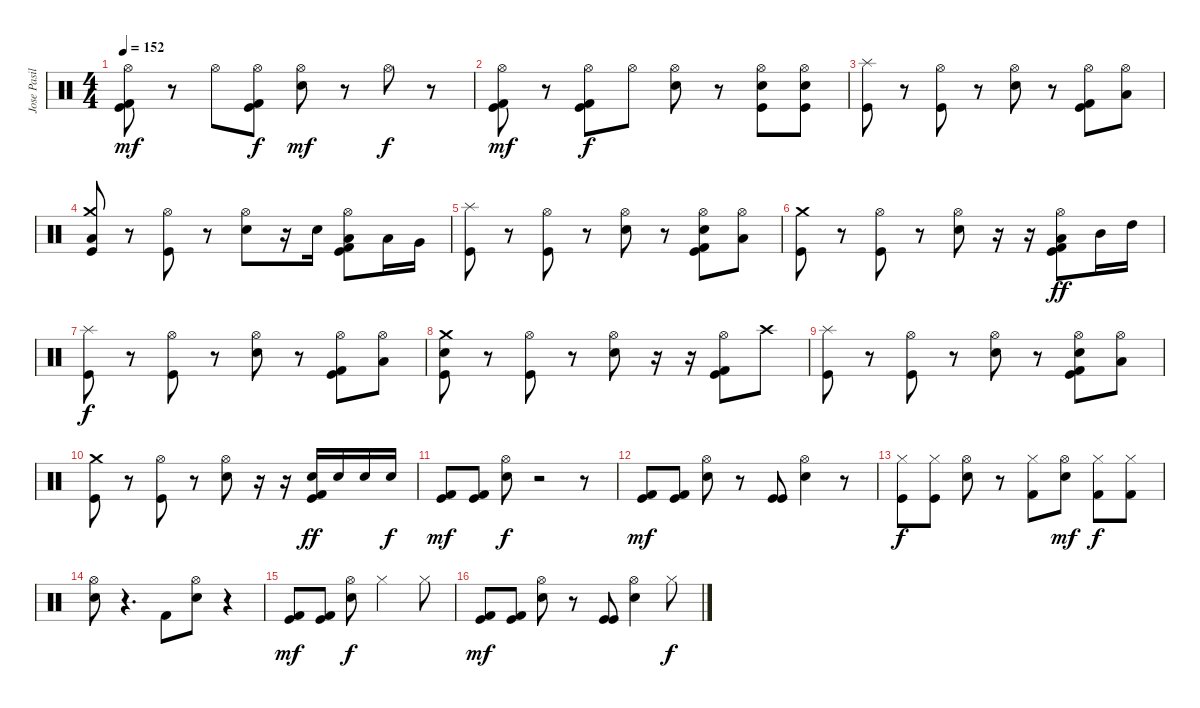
\track ("Jose Pasillas" "Jose Pasil") {instrument percussion}
\staff {score}
\articulation defaults
\ts (4 4)
\tempo 152
\clef neutral
\ks c
("Hi-Hat (open)" "Kick (hit) 2" "Kick (hit)").8{dy mf} r.8 "Hi-Hat (open)".8 ("Hi-Hat (open)" "Kick (hit) 2" "Kick (hit)").8{dy f} ("Hi-Hat (open)" "Electric Snare (hit)").8{dy mf} r.8 "Hi-Hat (open)".8{dy f} r.8 |
("Hi-Hat (open)" "Kick (hit) 2" "Kick (hit)").8{dy mf} r.8 ("Hi-Hat (open)" "Kick (hit)" "Kick (hit) 2").8{dy f} "Hi-Hat (open)".8 ("Hi-Hat (open)" "Electric Snare (hit)").8 r.8 ("Hi-Hat (open)" "Electric Snare (hit)" "Kick (hit)").8 ("Hi-Hat (open)" "Electric Snare (hit)" "Kick (hit)").8 |
("Splash (hit)" "Kick (hit)").8 r.8 ("Hi-Hat (open)" "Kick (hit)").8 r.8 ("Hi-Hat (open)" "Electric Snare (hit)").8 r.8 ("Hi-Hat (open)" "Kick (hit) 2" "Kick (hit)").8 ("Hi-Hat (open)" "Low Tom (hit)").8 |
("Crash medium (hit)" "Low Floor Tom (hit)" "Kick (hit)").8 r.8 ("Hi-Hat (open)" "Kick (hit)").8 r.8 ("Hi-Hat (open)" "Electric Snare (hit)").8 r.16 "Electric Snare (hit)".16 ("Hi-Hat (open)" "Low Tom (hit)" "Kick (hit) 2" "Kick (hit)").8 "Low Floor Tom (hit)".16 "Very Low Tom (hit)".16 |
("Splash (hit)" "Kick (hit)").8 r.8 ("Hi-Hat (open)" "Kick (hit)").8 r.8 ("Hi-Hat (open)" "Electric Snare (hit)").8 r.8 ("Hi-Hat (open)" "Electric Snare (hit)" "Kick (hit) 2" "Kick (hit)").8 ("Hi-Hat (open)" "Low Tom (hit)").8 |
("Crash medium (hit)" "Kick (hit)").8 r.8 ("Hi-Hat (open)" "Kick (hit)").8 r.8 ("Hi-Hat (open)" "Electric Snare (hit)").8 r.16 r.16 ("Hi-Hat (open)" "Low Tom (hit)" "Kick (hit) 2" "Kick (hit)").8{dy ff} "Mid Tom (hit)".16 "High Tom (hit)".16 |
("Splash (hit)" "Kick (hit)").8{dy f} r.8 ("Hi-Hat (open)" "Kick (hit)").8 r.8 ("Hi-Hat (open)" "Electric Snare (hit)").8 r.8 ("Hi-Hat (open)" "Kick (hit) 2" "Kick (hit)").8 ("Hi-Hat (open)" "Low Tom (hit)").8 |
("Crash medium (hit)" "Electric Snare (hit)" "Kick (hit)").8 r.8 ("Hi-Hat (open)" "Kick (hit)").8 r.8 ("Hi-Hat (open)" "Electric Snare (hit)").8 r.16 r.16 ("Hi-Hat (open)" "Kick (hit) 2" "Kick (hit)").8 "Crash high (hit)".8 |
("Splash (hit)" "Kick (hit)").8 r.8 ("Hi-Hat (open)" "Kick (hit)").8 r.8 ("Hi-Hat (open)" "Electric Snare (hit)").8 r.8 ("Hi-Hat (open)" "Electric Snare (hit)" "Kick (hit) 2" "Kick (hit)").8 ("Hi-Hat (open)" "Low Tom (hit)").8 |
("Crash medium (hit)" "Kick (hit)").8 r.8 ("Hi-Hat (open)" "Kick (hit)").8 r.8 ("Hi-Hat (open)" "Electric Snare (hit)").8 r.16 r.16 ("Electric Snare (hit)" "Kick (hit) 2" "Kick (hit)").16{dy ff} "Electric Snare (hit)".16 "Electric Snare (hit)".16 "Electric Snare (hit)".16{dy f} |
("Kick (hit)" "Kick (hit) 2").8{dy mf} ("Kick (hit)" "Kick (hit) 2").8 ("Electric Snare (hit)" "Hi-Hat (open)").8{dy f} r.2 r.8 |
("Kick (hit)" "Kick (hit) 2").8{dy mf} ("Kick (hit)" "Kick (hit) 2").8 ("Electric Snare (hit)" "Hi-Hat (open)").8 r.8 ("Kick (hit)" "Kick (hit)").8 ("Electric Snare (hit)" "Hi-Hat (open)").4 r.8 |
("Kick (hit)" "Hi-Hat (closed)").8{dy f} ("Kick (hit)" "Hi-Hat (closed)").8 ("Electric Snare (hit)" "Hi-Hat (open)").8 r.8 ("Kick (hit) 2" "Hi-Hat (closed)").8 ("Electric Snare (hit)" "Hi-Hat (open)").8{dy mf} ("Kick (hit) 2" "Hi-Hat (closed)").8{dy f} ("Kick (hit) 2" "Hi-Hat (closed)").8 |
("Hi-Hat (open)" "Electric Snare (hit)").8 r.4{d} "Kick (hit) 2".8 ("Electric Snare (hit)" "Hi-Hat (open)").8 r.4 |
("Kick (hit)" "Kick (hit) 2").8{dy mf} ("Kick (hit)" "Kick (hit) 2").8 ("Electric Snare (hit)" "Hi-Hat (open)").8{dy f} "Hi-Hat (closed)".2 "Hi-Hat (closed)".8 |
("Kick (hit)" "Kick (hit) 2").8{dy mf} ("Kick (hit)" "Kick (hit) 2").8 ("Electric Snare (hit)" "Hi-Hat (open)").8 r.8 ("Kick (hit)" "Kick (hit)").8 ("Electric Snare (hit)" "Hi-Hat (open)").4 "Hi-Hat (closed)".8{dy f}
